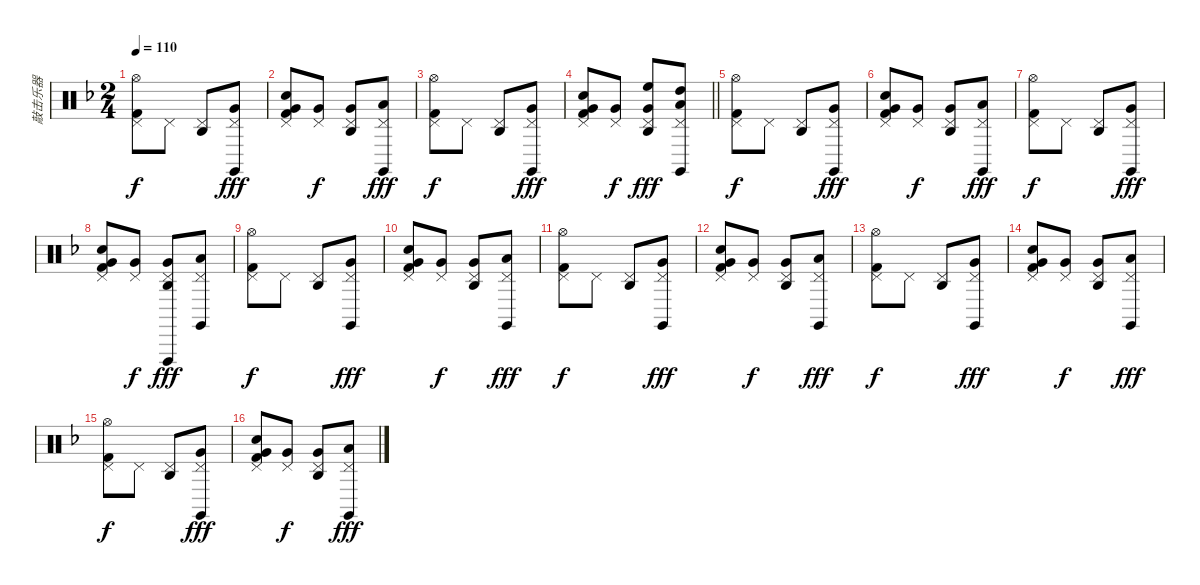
\track ("敲击乐器" "敲击乐器") {instrument percussion}
\staff {score}
\articulation defaults
\ts (2 4)
\tempo 110
\clef neutral
\ks dminor
("Hi-Hat (open)" "Pedal Hi-Hat (hit)" "Kick (hit) 2").8{dy f} "Pedal Hi-Hat (hit)".8 ("Pedal Hi-Hat (hit)" "Agogo high (hit)").8 ("Pedal Hi-Hat (hit)" "Claves (hit)" "Very Low Tom (hit)").8{dy fff} |
("Pedal Hi-Hat (hit)" "Electric Snare (hit)" "Very Low Tom (hit)" "Kick (hit) 2").8 ("Pedal Hi-Hat (hit)" "Very Low Tom (hit)").8{dy f} ("Pedal Hi-Hat (hit)" "Agogo high (hit)" "Very Low Tom (hit)").8 ("Pedal Hi-Hat (hit)" "Claves (hit)" "Low Floor Tom (hit)").8{dy fff} |
("Hi-Hat (open)" "Pedal Hi-Hat (hit)" "Kick (hit) 2").8{dy f} "Pedal Hi-Hat (hit)".8 ("Pedal Hi-Hat (hit)" "Agogo high (hit)").8 ("Pedal Hi-Hat (hit)" "Claves (hit)" "Very Low Tom (hit)").8{dy fff} |
\barLineRight lightlight
("Pedal Hi-Hat (hit)" "Electric Snare (hit)" "Very Low Tom (hit)" "Kick (hit) 2").8 ("Pedal Hi-Hat (hit)" "Very Low Tom (hit)").8{dy f} ("Pedal Hi-Hat (hit)" "Agogo high (hit)" "High Floor Tom (hit)" "Very Low Tom (hit)").8{dy fff} ("Pedal Hi-Hat (hit)" "Claves (hit)" "High Tom (hit)" "Low Floor Tom (hit)").8 |
("Hi-Hat (open)" "Pedal Hi-Hat (hit)" "Kick (hit) 2").8{dy f} "Pedal Hi-Hat (hit)".8 ("Pedal Hi-Hat (hit)" "Agogo high (hit)").8 ("Pedal Hi-Hat (hit)" "Claves (hit)" "Very Low Tom (hit)").8{dy fff} |
("Pedal Hi-Hat (hit)" "Electric Snare (hit)" "Very Low Tom (hit)" "Kick (hit) 2").8 ("Pedal Hi-Hat (hit)" "Very Low Tom (hit)").8{dy f} ("Pedal Hi-Hat (hit)" "Agogo high (hit)" "Very Low Tom (hit)").8 ("Pedal Hi-Hat (hit)" "Claves (hit)" "Low Floor Tom (hit)").8{dy fff} |
("Hi-Hat (open)" "Pedal Hi-Hat (hit)" "Kick (hit) 2").8{dy f} "Pedal Hi-Hat (hit)".8 ("Pedal Hi-Hat (hit)" "Agogo high (hit)").8 ("Pedal Hi-Hat (hit)" "Claves (hit)" "Very Low Tom (hit)").8{dy fff} |
("Pedal Hi-Hat (hit)" "Electric Snare (hit)" "Very Low Tom (hit)" "Kick (hit) 2").8 ("Pedal Hi-Hat (hit)" "Very Low Tom (hit)").8{dy f} ("Pedal Hi-Hat (hit)" "Agogo high (hit)" "Vibraslap (hit)" "Very Low Tom (hit)").8{dy fff} ("Pedal Hi-Hat (hit)" "Claves (hit)" "Low Floor Tom (hit)").8 |
("Hi-Hat (open)" "Pedal Hi-Hat (hit)" "Kick (hit) 2").8{dy f} "Pedal Hi-Hat (hit)".8 ("Pedal Hi-Hat (hit)" "Agogo high (hit)").8 ("Pedal Hi-Hat (hit)" "Claves (hit)" "Very Low Tom (hit)").8{dy fff} |
("Pedal Hi-Hat (hit)" "Electric Snare (hit)" "Very Low Tom (hit)" "Kick (hit) 2").8 ("Pedal Hi-Hat (hit)" "Very Low Tom (hit)").8{dy f} ("Pedal Hi-Hat (hit)" "Agogo high (hit)" "Very Low Tom (hit)").8 ("Pedal Hi-Hat (hit)" "Claves (hit)" "Low Floor Tom (hit)").8{dy fff} |
("Hi-Hat (open)" "Pedal Hi-Hat (hit)" "Kick (hit) 2").8{dy f} "Pedal Hi-Hat (hit)".8 ("Pedal Hi-Hat (hit)" "Agogo high (hit)").8 ("Pedal Hi-Hat (hit)" "Claves (hit)" "Very Low Tom (hit)").8{dy fff} |
("Pedal Hi-Hat (hit)" "Electric Snare (hit)" "Very Low Tom (hit)" "Kick (hit) 2").8 ("Pedal Hi-Hat (hit)" "Very Low Tom (hit)").8{dy f} ("Pedal Hi-Hat (hit)" "Agogo high (hit)" "Very Low Tom (hit)").8 ("Pedal Hi-Hat (hit)" "Claves (hit)" "Low Floor Tom (hit)").8{dy fff} |
("Hi-Hat (open)" "Pedal Hi-Hat (hit)" "Kick (hit) 2").8{dy f} "Pedal Hi-Hat (hit)".8 ("Pedal Hi-Hat (hit)" "Agogo high (hit)").8 ("Pedal Hi-Hat (hit)" "Claves (hit)" "Very Low Tom (hit)").8{dy fff} |
("Pedal Hi-Hat (hit)" "Electric Snare (hit)" "Very Low Tom (hit)" "Kick (hit) 2").8 ("Pedal Hi-Hat (hit)" "Very Low Tom (hit)").8{dy f} ("Pedal Hi-Hat (hit)" "Agogo high (hit)" "Very Low Tom (hit)").8 ("Pedal Hi-Hat (hit)" "Claves (hit)" "Low Floor Tom (hit)").8{dy fff} |
("Hi-Hat (open)" "Pedal Hi-Hat (hit)" "Kick (hit) 2").8{dy f} "Pedal Hi-Hat (hit)".8 ("Pedal Hi-Hat (hit)" "Agogo high (hit)").8 ("Pedal Hi-Hat (hit)" "Claves (hit)" "Very Low Tom (hit)").8{dy fff} |
("Pedal Hi-Hat (hit)" "Electric Snare (hit)" "Very Low Tom (hit)" "Kick (hit) 2").8 ("Pedal Hi-Hat (hit)" "Very Low Tom (hit)").8{dy f} ("Pedal Hi-Hat (hit)" "Agogo high (hit)" "Very Low Tom (hit)").8 ("Pedal Hi-Hat (hit)" "Claves (hit)" "Low Floor Tom (hit)").8{dy fff}
